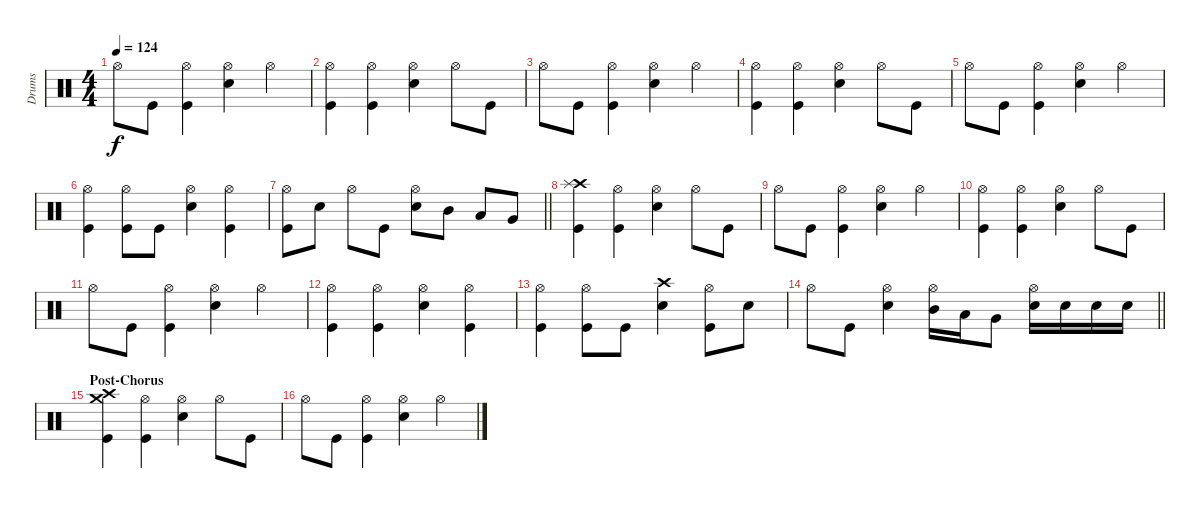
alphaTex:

\track ("Drums" "Drums") {instrument percussion}
\staff {score}
\articulation defaults
\ts (4 4)
\tempo 124
\clef neutral
\ks c "Hi-Hat (open)".8{dy f} "Kick (hit)".8
("Hi-Hat (open)" "Kick (hit)").4 ("Hi-Hat (open)" "Snare (hit) 2").4 "Hi-Hat (open)".4 |
("Hi-Hat (open)" "Kick (hit)").4 ("Hi-Hat (open)" "Kick (hit)").4 ("Hi-Hat (open)" "Snare (hit) 2").4 "Hi-Hat (open)".8 "Kick (hit)".8 |
"Hi-Hat (open)".8 "Kick (hit)".8 ("Hi-Hat (open)" "Kick (hit)").4 ("Hi-Hat (open)" "Snare (hit) 2").4 "Hi-Hat (open)".4 |
("Hi-Hat (open)" "Kick (hit)").4 ("Hi-Hat (open)" "Kick (hit)").4 ("Hi-Hat (open)" "Snare (hit) 2").4 "Hi-Hat (open)".8 "Kick (hit)".8 |
"Hi-Hat (open)".8 "Kick (hit)".8 ("Hi-Hat (open)" "Kick (hit)").4 ("Hi-Hat (open)" "Snare (hit) 2").4 "Hi-Hat (open)".4 |
("Hi-Hat (open)" "Kick (hit)").4 ("Hi-Hat (open)" "Kick (hit)").8 "Kick (hit)".8 ("Hi-Hat (open)" "Snare (hit) 2").4 ("Hi-Hat (open)" "Kick (hit)").4 |
\barLineRight lightlight
("Hi-Hat (open)" "Kick (hit)").8 "Snare (hit) 2".8 "Hi-Hat (open)".8 "Kick (hit)".8 ("Hi-Hat (open)" "Snare (hit) 2").8 "Mid Tom (hit)".8 "Low Tom (hit)".8 "Very Low Tom (hit)".8 |
("Crash high (hit)" "Splash (hit)" "Kick (hit)").4 ("Hi-Hat (open)" "Kick (hit)").4 ("Hi-Hat (open)" "Snare (hit) 2").4 "Hi-Hat (open)".8 "Kick (hit)".8 |
"Hi-Hat (open)".8 "Kick (hit)".8 ("Hi-Hat (open)" "Kick (hit)").4 ("Hi-Hat (open)" "Snare (hit) 2").4 "Hi-Hat (open)".4 |
("Hi-Hat (open)" "Kick (hit)").4 ("Hi-Hat (open)" "Kick (hit)").4 ("Hi-Hat (open)" "Snare (hit) 2").4 "Hi-Hat (open)".8 "Kick (hit)".8 |
"Hi-Hat (open)".8 "Kick (hit)".8 ("Hi-Hat (open)" "Kick (hit)").4 ("Hi-Hat (open)" "Snare (hit) 2").4 "Hi-Hat (open)".4 |
("Hi-Hat (open)" "Kick (hit)").4 ("Hi-Hat (open)" "Kick (hit)").4 ("Hi-Hat (open)" "Snare (hit) 2").4 ("Hi-Hat (open)" "Kick (hit)").4 |
("Hi-Hat (open)" "Kick (hit)").4 ("Hi-Hat (open)" "Kick (hit)").8 "Kick (hit)".8 ("Crash high (hit)" "Snare (hit) 2").4 ("Hi-Hat (open)" "Kick (hit)").8 "Snare (hit) 2".8 |
\barLineRight lightlight "Hi-Hat (open)".8 "Kick (hit)".8
("Hi-Hat (open)" "Snare (hit) 2").4 ("Hi-Hat (open)" "Mid Tom (hit)").16 "Low Tom (hit)".16 "Very Low Tom (hit)".8 ("Hi-Hat (open)" "Snare (hit) 2").16 "Snare (hit) 2".16 "Snare (hit) 2".16 "Snare (hit) 2".16 |
\section ("" "Post-Chorus")
("Crash high (hit)" "Crash medium (hit)" "Kick (hit)").4 ("Hi-Hat (open)" "Kick (hit)").4 ("Hi-Hat (open)" "Snare (hit) 2").4 "Hi-Hat (open)".8 "Kick (hit)".8 |
"Hi-Hat (open)".8 "Kick (hit)".8 ("Hi-Hat (open)" "Kick (hit)").4 ("Hi-Hat (open)" "Snare (hit) 2").4 "Hi-Hat (open)".4
